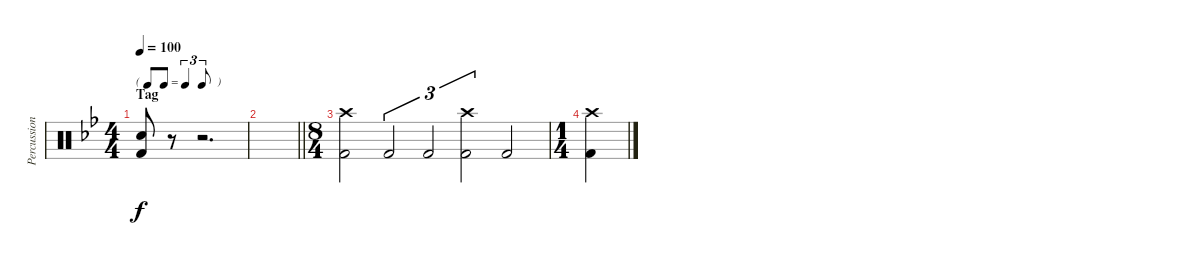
\track ("Percussion" "Percussion") {instrument percussion}
\staff {score}
\articulation defaults
\ts (4 4)
\tf triplet8th
\section ("" "Tag")
\tempo 100
\clef neutral
\ks bb
("Snare (hit) 2" "Kick (hit) 2").8{dy f} r.8 r.2{d} |
\barLineRight lightlight
|
\ts (8 4)
("Crash high (hit)" "Kick (hit) 2").2 "Kick (hit) 2".2{tu (3 2)} "Kick (hit) 2".2{tu (3 2)} ("Crash high (hit)" "Kick (hit) 2").2{tu (3 2)} "Kick (hit) 2".2 |
\ts (1 4)
("Crash high (hit)" "Kick (hit) 2").4
